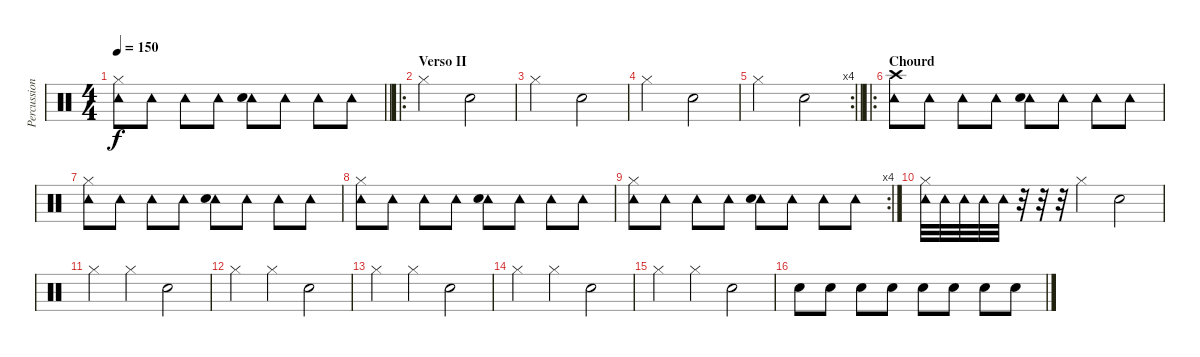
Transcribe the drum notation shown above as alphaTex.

\track ("Percussioni" "Percussion") {instrument percussion}
\staff {score}
\articulation defaults
\ts (4 4)
\tempo 150
\clef neutral
\barLineRight lightlight
\ks c
("Tambourine (hit)" "Hi-Hat (closed)").8{dy f} "Tambourine (hit)".8 "Tambourine (hit)".8 "Tambourine (hit)".8 ("Tambourine (hit)" "Snare (hit) 2").8 "Tambourine (hit)".8 "Tambourine (hit)".8 "Tambourine (hit)".8 |
\ro
\section ("" "Verso II")
"Hi-Hat (closed)".2 "Snare (hit) 2".2 |
"Hi-Hat (closed)".2 "Snare (hit) 2".2 |
"Hi-Hat (closed)".2 "Snare (hit) 2".2 |
\rc 4
\barLineRight lightlight "Hi-Hat (closed)".2 "Snare (hit) 2".2
|
\ro
\section ("" "Chourd")
("Tambourine (hit)" "Crash high (hit)").8 "Tambourine (hit)".8 "Tambourine (hit)".8 "Tambourine (hit)".8 ("Tambourine (hit)" "Snare (hit) 2").8 "Tambourine (hit)".8 "Tambourine (hit)".8 "Tambourine (hit)".8 |
("Tambourine (hit)" "Hi-Hat (closed)").8 "Tambourine (hit)".8 "Tambourine (hit)".8 "Tambourine (hit)".8 ("Tambourine (hit)" "Snare (hit) 2").8 "Tambourine (hit)".8 "Tambourine (hit)".8 "Tambourine (hit)".8 |
("Tambourine (hit)" "Hi-Hat (closed)").8 "Tambourine (hit)".8 "Tambourine (hit)".8 "Tambourine (hit)".8 ("Tambourine (hit)" "Snare (hit) 2").8 "Tambourine (hit)".8 "Tambourine (hit)".8 "Tambourine (hit)".8 |
\rc 4
("Tambourine (hit)" "Hi-Hat (closed)").8 "Tambourine (hit)".8 "Tambourine (hit)".8 "Tambourine (hit)".8 ("Tambourine (hit)" "Snare (hit) 2").8 "Tambourine (hit)".8 "Tambourine (hit)".8 "Tambourine (hit)".8 |
("Tambourine (hit)" "Hi-Hat (closed)").32 "Tambourine (hit)".32 "Tambourine (hit)".32 "Tambourine (hit)".32 "Tambourine (hit)".32 r.32 r.32 r.32 "Hi-Hat (closed)".4 "Snare (hit) 2".2 |
"Hi-Hat (closed)".4 "Hi-Hat (closed)".4 "Snare (hit) 2".2 |
"Hi-Hat (closed)".4 "Hi-Hat (closed)".4 "Snare (hit) 2".2 |
"Hi-Hat (closed)".4 "Hi-Hat (closed)".4 "Snare (hit) 2".2 |
"Hi-Hat (closed)".4 "Hi-Hat (closed)".4 "Snare (hit) 2".2 |
"Hi-Hat (closed)".4 "Hi-Hat (closed)".4 "Snare (hit) 2".2 |
"Snare (hit) 2".8 "Snare (hit) 2".8 "Snare (hit) 2".8 "Snare (hit) 2".8 "Snare (hit) 2".8 "Snare (hit) 2".8 "Snare (hit) 2".8 "Snare (hit) 2".8
